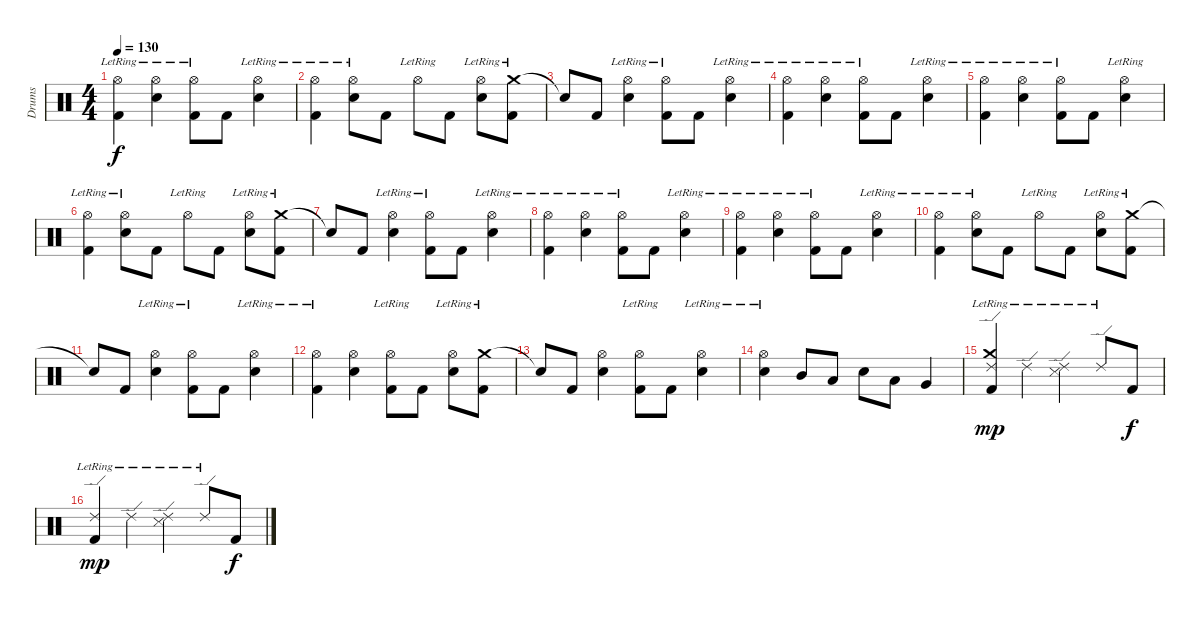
\track ("Drums" "Drums") {instrument percussion}
\staff {score}
\articulation defaults
\ts (4 4)
\tempo 130
\clef neutral
\ks c
("Hi-Hat (open)"{lr} "Kick (hit) 2").4{dy f} ("Hi-Hat (open)"{lr} "Electric Snare (hit)").4 ("Hi-Hat (open)"{lr} "Kick (hit) 2").8 "Kick (hit) 2".8 ("Hi-Hat (open)"{lr} "Electric Snare (hit)").4 |
("Hi-Hat (open)"{lr} "Kick (hit) 2").4 ("Hi-Hat (open)"{lr} "Electric Snare (hit)").8 "Kick (hit) 2".8 "Hi-Hat (open)"{lr}.8 "Kick (hit) 2".8 ("Hi-Hat (open)"{lr} "Electric Snare (hit)").8 ("Crash medium (hit)"{lr} "Kick (hit) 2").8 |
"Snare (hit)"{t}.8 "Kick (hit) 2".8 ("Hi-Hat (open)"{lr} "Electric Snare (hit)").4 ("Hi-Hat (open)"{lr} "Kick (hit) 2").8 "Kick (hit) 2".8 ("Hi-Hat (open)"{lr} "Electric Snare (hit)").4 |
("Hi-Hat (open)"{lr} "Kick (hit) 2").4 ("Hi-Hat (open)"{lr} "Electric Snare (hit)").4 ("Hi-Hat (open)"{lr} "Kick (hit) 2").8 "Kick (hit) 2".8 ("Hi-Hat (open)"{lr} "Electric Snare (hit)").4 |
("Hi-Hat (open)"{lr} "Kick (hit) 2").4 ("Hi-Hat (open)"{lr} "Electric Snare (hit)").4 ("Hi-Hat (open)"{lr} "Kick (hit) 2").8 "Kick (hit) 2".8 ("Hi-Hat (open)"{lr} "Electric Snare (hit)").4 |
("Hi-Hat (open)"{lr} "Kick (hit) 2").4 ("Hi-Hat (open)"{lr} "Electric Snare (hit)").8 "Kick (hit) 2".8 "Hi-Hat (open)"{lr}.8 "Kick (hit) 2".8 ("Hi-Hat (open)"{lr} "Electric Snare (hit)").8 ("Crash medium (hit)"{lr} "Kick (hit) 2").8 |
"Snare (hit)"{t}.8 "Kick (hit) 2".8 ("Hi-Hat (open)"{lr} "Electric Snare (hit)").4 ("Hi-Hat (open)"{lr} "Kick (hit) 2").8 "Kick (hit) 2".8 ("Hi-Hat (open)"{lr} "Electric Snare (hit)").4 |
("Hi-Hat (open)"{lr} "Kick (hit) 2").4 ("Hi-Hat (open)"{lr} "Electric Snare (hit)").4 ("Hi-Hat (open)"{lr} "Kick (hit) 2").8 "Kick (hit) 2".8 ("Hi-Hat (open)"{lr} "Electric Snare (hit)").4 |
("Hi-Hat (open)"{lr} "Kick (hit) 2").4 ("Hi-Hat (open)"{lr} "Electric Snare (hit)").4 ("Hi-Hat (open)"{lr} "Kick (hit) 2").8 "Kick (hit) 2".8 ("Hi-Hat (open)"{lr} "Electric Snare (hit)").4 |
("Hi-Hat (open)"{lr} "Kick (hit) 2").4 ("Hi-Hat (open)"{lr} "Electric Snare (hit)").8 "Kick (hit) 2".8 "Hi-Hat (open)"{lr}.8 "Kick (hit) 2".8 ("Hi-Hat (open)"{lr} "Electric Snare (hit)").8 ("Crash medium (hit)"{lr} "Kick (hit) 2").8 |
"Snare (hit)"{t}.8 "Kick (hit) 2".8 ("Hi-Hat (open)"{lr} "Electric Snare (hit)").4 ("Hi-Hat (open)"{lr} "Kick (hit) 2").8 "Kick (hit) 2".8 ("Hi-Hat (open)"{lr} "Electric Snare (hit)").4 |
("Hi-Hat (open)"{lr} "Kick (hit) 2").4 ("Hi-Hat (open)" "Electric Snare (hit)").4 ("Hi-Hat (open)"{lr} "Kick (hit) 2").8 "Kick (hit) 2".8 ("Hi-Hat (open)"{lr} "Electric Snare (hit)").8 ("Crash medium (hit)"{lr} "Kick (hit) 2").8 |
"Snare (hit)"{t}.8 "Kick (hit) 2".8 ("Hi-Hat (open)" "Electric Snare (hit)").4 ("Hi-Hat (open)"{lr} "Kick (hit) 2").8 "Kick (hit) 2".8 ("Hi-Hat (open)"{lr} "Electric Snare (hit)").4 |
("Hi-Hat (open)"{lr} "Electric Snare (hit)").4 "Mid Tom (hit)".8 "Low Tom (hit)".8 "Electric Snare (hit)".8 "Low Tom (hit)".8 "Very Low Tom (hit)".4 |
("Crash medium (hit)" "Ride (edge) 2"{lr} "Kick (hit) 2").4{dy mp} "Ride (edge) 2"{lr}.4 ("Ride (edge) 2"{lr} "Snare (side stick) 3").4 "Ride (edge) 2"{lr}.8 "Kick (hit) 2".8{dy f} |
("Ride (edge) 2"{lr} "Kick (hit) 2").4{dy mp} "Ride (edge) 2"{lr}.4 ("Ride (edge) 2"{lr} "Snare (side stick) 3").4 "Ride (edge) 2"{lr}.8 "Kick (hit) 2".8{dy f}
